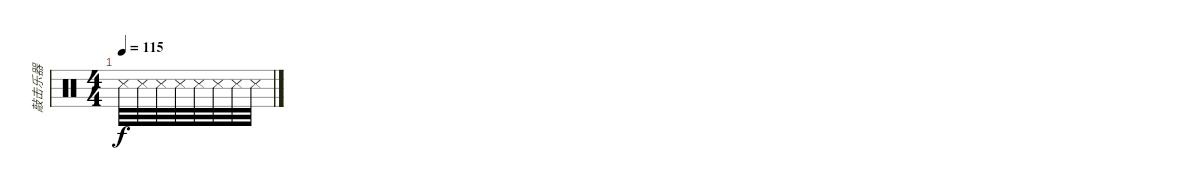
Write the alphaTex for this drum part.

\track ("敲击乐器" "敲击乐器") {instrument percussion}
\staff {score}
\articulation defaults
\ts (4 4)
\tempo 115
\clef neutral
\ks c "Snare (side stick) 3".32{dy f} "Snare (side stick) 3".32 "Snare (side stick) 3".32 "Snare (side stick) 3".32 "Snare (side stick) 3".32 "Snare (side stick) 3".32 "Snare (side stick) 3".32 "Snare (side stick) 3".32
